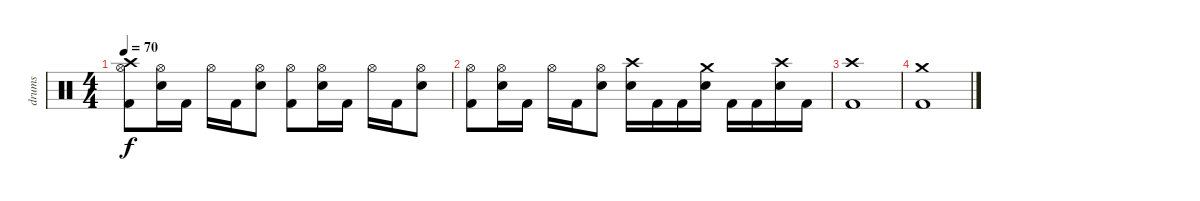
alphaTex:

\track ("drums" "drums") {instrument percussion}
\staff {score}
\articulation defaults
\ts (4 4)
\tempo 70
\clef neutral
\ks c
("Crash high (hit)" "Hi-Hat (open)" "Kick (hit) 2").8{dy f} ("Hi-Hat (open)" "Snare (hit) 2").16 "Kick (hit) 2".16 "Hi-Hat (open)".16 "Kick (hit) 2".16 ("Hi-Hat (open)" "Snare (hit) 2").8 ("Hi-Hat (open)" "Kick (hit) 2").8 ("Hi-Hat (open)" "Snare (hit) 2").16 "Kick (hit) 2".16 "Hi-Hat (open)".16 "Kick (hit) 2".16 ("Hi-Hat (open)" "Snare (hit) 2").8 |
("Hi-Hat (open)" "Kick (hit) 2").8 ("Hi-Hat (open)" "Snare (hit) 2").16 "Kick (hit) 2".16 "Hi-Hat (open)".16 "Kick (hit) 2".16 ("Hi-Hat (open)" "Snare (hit) 2").8 ("Crash high (hit)" "Snare (hit) 2").16 "Kick (hit) 2".16 "Kick (hit) 2".16 ("Crash medium (hit)" "Snare (hit) 2").16 "Kick (hit) 2".16 "Kick (hit) 2".16 ("Crash high (hit)" "Snare (hit) 2").16 "Kick (hit) 2".16 |
("Crash high (hit)" "Kick (hit) 2").1 |
("Crash medium (hit)" "Kick (hit) 2").1
